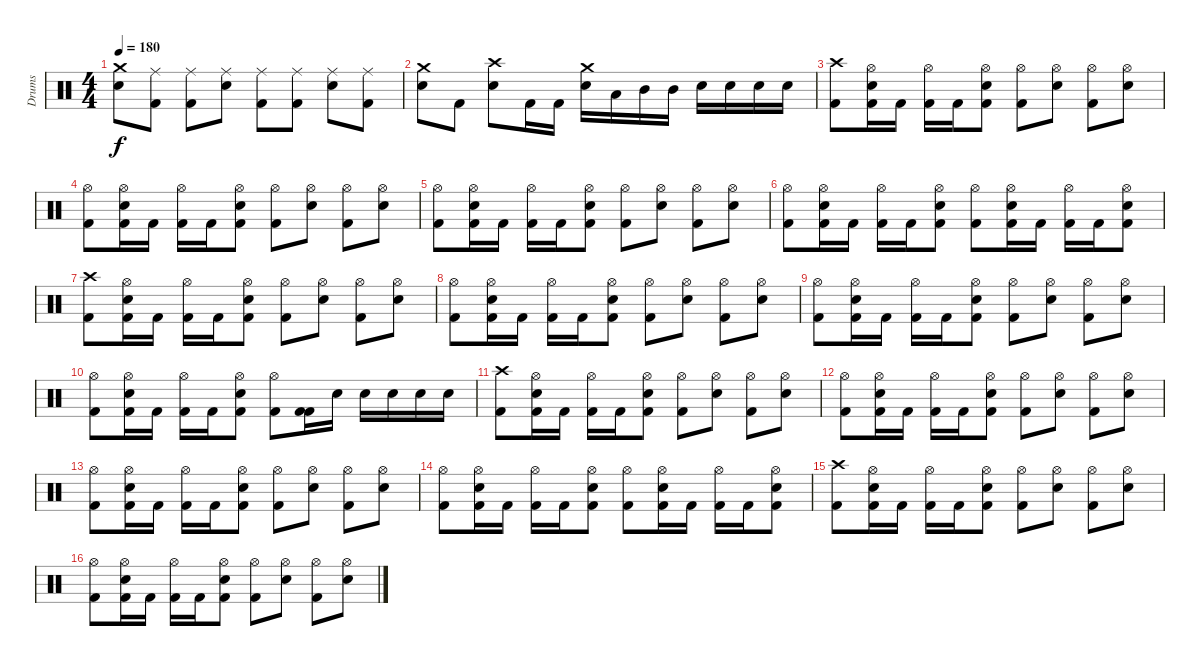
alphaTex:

\track ("Drums" "Drums") {instrument percussion}
\staff {score}
\articulation defaults
\ts (4 4)
\tempo 180
\clef neutral
\ks c
("Crash medium (hit)" "Snare (hit) 2").8{dy f} ("Ride (middle)" "Kick (hit) 2").8 ("Ride (middle)" "Kick (hit) 2").8 ("Ride (middle)" "Snare (hit) 2").8 ("Ride (middle)" "Kick (hit) 2").8 ("Ride (middle)" "Kick (hit) 2").8 ("Ride (middle)" "Snare (hit) 2").8 ("Ride (middle)" "Kick (hit) 2").8 |
("Snare (hit) 2" "Crash medium (hit)").8 "Kick (hit) 2".8 ("Snare (hit) 2" "Crash high (hit)").8 "Kick (hit) 2".16 "Kick (hit) 2".16 ("Snare (hit) 2" "Crash medium (hit)").16 "Low Tom (hit)".16 "Mid Tom (hit)".16 "Mid Tom (hit)".16 "Snare (hit) 2".16 "Snare (hit) 2".16 "Snare (hit) 2".16 "Snare (hit) 2".16 |
("Kick (hit) 2" "Crash high (hit)").8 ("Kick (hit) 2" "Snare (hit) 2" "Hi-Hat (open)").16 "Kick (hit) 2".16 ("Kick (hit) 2" "Hi-Hat (open)").16 "Kick (hit) 2".16 ("Kick (hit) 2" "Snare (hit) 2" "Hi-Hat (open)").8 ("Hi-Hat (open)" "Kick (hit) 2").8 ("Snare (hit) 2" "Hi-Hat (open)").8 ("Hi-Hat (open)" "Kick (hit) 2").8 ("Snare (hit) 2" "Hi-Hat (open)").8 |
("Kick (hit) 2" "Hi-Hat (open)").8 ("Kick (hit) 2" "Snare (hit) 2" "Hi-Hat (open)").16 "Kick (hit) 2".16 ("Kick (hit) 2" "Hi-Hat (open)").16 "Kick (hit) 2".16 ("Kick (hit) 2" "Snare (hit) 2" "Hi-Hat (open)").8 ("Hi-Hat (open)" "Kick (hit) 2").8 ("Snare (hit) 2" "Hi-Hat (open)").8 ("Hi-Hat (open)" "Kick (hit) 2").8 ("Snare (hit) 2" "Hi-Hat (open)").8 |
("Kick (hit) 2" "Hi-Hat (open)").8 ("Kick (hit) 2" "Snare (hit) 2" "Hi-Hat (open)").16 "Kick (hit) 2".16 ("Kick (hit) 2" "Hi-Hat (open)").16 "Kick (hit) 2".16 ("Kick (hit) 2" "Snare (hit) 2" "Hi-Hat (open)").8 ("Hi-Hat (open)" "Kick (hit) 2").8 ("Snare (hit) 2" "Hi-Hat (open)").8 ("Hi-Hat (open)" "Kick (hit) 2").8 ("Snare (hit) 2" "Hi-Hat (open)").8 |
("Kick (hit) 2" "Hi-Hat (open)").8 ("Kick (hit) 2" "Snare (hit) 2" "Hi-Hat (open)").16 "Kick (hit) 2".16 ("Kick (hit) 2" "Hi-Hat (open)").16 "Kick (hit) 2".16 ("Kick (hit) 2" "Snare (hit) 2" "Hi-Hat (open)").8 ("Hi-Hat (open)" "Kick (hit) 2").8 ("Kick (hit) 2" "Snare (hit) 2" "Hi-Hat (open)").16 "Kick (hit) 2".16 ("Kick (hit) 2" "Hi-Hat (open)").16 "Kick (hit) 2".16 ("Hi-Hat (open)" "Kick (hit) 2" "Snare (hit) 2").8 |
("Kick (hit) 2" "Crash high (hit)").8 ("Kick (hit) 2" "Snare (hit) 2" "Hi-Hat (open)").16 "Kick (hit) 2".16 ("Kick (hit) 2" "Hi-Hat (open)").16 "Kick (hit) 2".16 ("Kick (hit) 2" "Snare (hit) 2" "Hi-Hat (open)").8 ("Hi-Hat (open)" "Kick (hit) 2").8 ("Snare (hit) 2" "Hi-Hat (open)").8 ("Hi-Hat (open)" "Kick (hit) 2").8 ("Snare (hit) 2" "Hi-Hat (open)").8 |
("Kick (hit) 2" "Hi-Hat (open)").8 ("Kick (hit) 2" "Snare (hit) 2" "Hi-Hat (open)").16 "Kick (hit) 2".16 ("Kick (hit) 2" "Hi-Hat (open)").16 "Kick (hit) 2".16 ("Kick (hit) 2" "Snare (hit) 2" "Hi-Hat (open)").8 ("Hi-Hat (open)" "Kick (hit) 2").8 ("Snare (hit) 2" "Hi-Hat (open)").8 ("Hi-Hat (open)" "Kick (hit) 2").8 ("Snare (hit) 2" "Hi-Hat (open)").8 |
("Kick (hit) 2" "Hi-Hat (open)").8 ("Kick (hit) 2" "Snare (hit) 2" "Hi-Hat (open)").16 "Kick (hit) 2".16 ("Kick (hit) 2" "Hi-Hat (open)").16 "Kick (hit) 2".16 ("Kick (hit) 2" "Snare (hit) 2" "Hi-Hat (open)").8 ("Hi-Hat (open)" "Kick (hit) 2").8 ("Snare (hit) 2" "Hi-Hat (open)").8 ("Hi-Hat (open)" "Kick (hit) 2").8 ("Snare (hit) 2" "Hi-Hat (open)").8 |
("Kick (hit) 2" "Hi-Hat (open)").8 ("Kick (hit) 2" "Snare (hit) 2" "Hi-Hat (open)").16 "Kick (hit) 2".16 ("Kick (hit) 2" "Hi-Hat (open)").16 "Kick (hit) 2".16 ("Kick (hit) 2" "Snare (hit) 2" "Hi-Hat (open)").8 ("Hi-Hat (open)" "Kick (hit) 2").8 ("Kick (hit) 2" "Kick (hit) 2").16 "Snare (hit) 2".16 "Snare (hit) 2".16 "Snare (hit) 2".16 "Snare (hit) 2".16 "Snare (hit) 2".16 |
("Kick (hit) 2" "Crash high (hit)").8 ("Kick (hit) 2" "Snare (hit) 2" "Hi-Hat (open)").16 "Kick (hit) 2".16 ("Kick (hit) 2" "Hi-Hat (open)").16 "Kick (hit) 2".16 ("Kick (hit) 2" "Snare (hit) 2" "Hi-Hat (open)").8 ("Hi-Hat (open)" "Kick (hit) 2").8 ("Snare (hit) 2" "Hi-Hat (open)").8 ("Hi-Hat (open)" "Kick (hit) 2").8 ("Snare (hit) 2" "Hi-Hat (open)").8 |
("Kick (hit) 2" "Hi-Hat (open)").8 ("Kick (hit) 2" "Snare (hit) 2" "Hi-Hat (open)").16 "Kick (hit) 2".16 ("Kick (hit) 2" "Hi-Hat (open)").16 "Kick (hit) 2".16 ("Kick (hit) 2" "Snare (hit) 2" "Hi-Hat (open)").8 ("Hi-Hat (open)" "Kick (hit) 2").8 ("Snare (hit) 2" "Hi-Hat (open)").8 ("Hi-Hat (open)" "Kick (hit) 2").8 ("Snare (hit) 2" "Hi-Hat (open)").8 |
("Kick (hit) 2" "Hi-Hat (open)").8 ("Kick (hit) 2" "Snare (hit) 2" "Hi-Hat (open)").16 "Kick (hit) 2".16 ("Kick (hit) 2" "Hi-Hat (open)").16 "Kick (hit) 2".16 ("Kick (hit) 2" "Snare (hit) 2" "Hi-Hat (open)").8 ("Hi-Hat (open)" "Kick (hit) 2").8 ("Snare (hit) 2" "Hi-Hat (open)").8 ("Hi-Hat (open)" "Kick (hit) 2").8 ("Snare (hit) 2" "Hi-Hat (open)").8 |
("Kick (hit) 2" "Hi-Hat (open)").8 ("Kick (hit) 2" "Snare (hit) 2" "Hi-Hat (open)").16 "Kick (hit) 2".16 ("Kick (hit) 2" "Hi-Hat (open)").16 "Kick (hit) 2".16 ("Kick (hit) 2" "Snare (hit) 2" "Hi-Hat (open)").8 ("Hi-Hat (open)" "Kick (hit) 2").8 ("Kick (hit) 2" "Snare (hit) 2" "Hi-Hat (open)").16 "Kick (hit) 2".16 ("Kick (hit) 2" "Hi-Hat (open)").16 "Kick (hit) 2".16 ("Hi-Hat (open)" "Kick (hit) 2" "Snare (hit) 2").8 |
("Kick (hit) 2" "Crash high (hit)").8 ("Kick (hit) 2" "Snare (hit) 2" "Hi-Hat (open)").16 "Kick (hit) 2".16 ("Kick (hit) 2" "Hi-Hat (open)").16 "Kick (hit) 2".16 ("Kick (hit) 2" "Snare (hit) 2" "Hi-Hat (open)").8 ("Hi-Hat (open)" "Kick (hit) 2").8 ("Snare (hit) 2" "Hi-Hat (open)").8 ("Hi-Hat (open)" "Kick (hit) 2").8 ("Snare (hit) 2" "Hi-Hat (open)").8 |
("Kick (hit) 2" "Hi-Hat (open)").8 ("Kick (hit) 2" "Snare (hit) 2" "Hi-Hat (open)").16 "Kick (hit) 2".16 ("Kick (hit) 2" "Hi-Hat (open)").16 "Kick (hit) 2".16 ("Kick (hit) 2" "Snare (hit) 2" "Hi-Hat (open)").8 ("Hi-Hat (open)" "Kick (hit) 2").8 ("Snare (hit) 2" "Hi-Hat (open)").8 ("Hi-Hat (open)" "Kick (hit) 2").8 ("Snare (hit) 2" "Hi-Hat (open)").8
